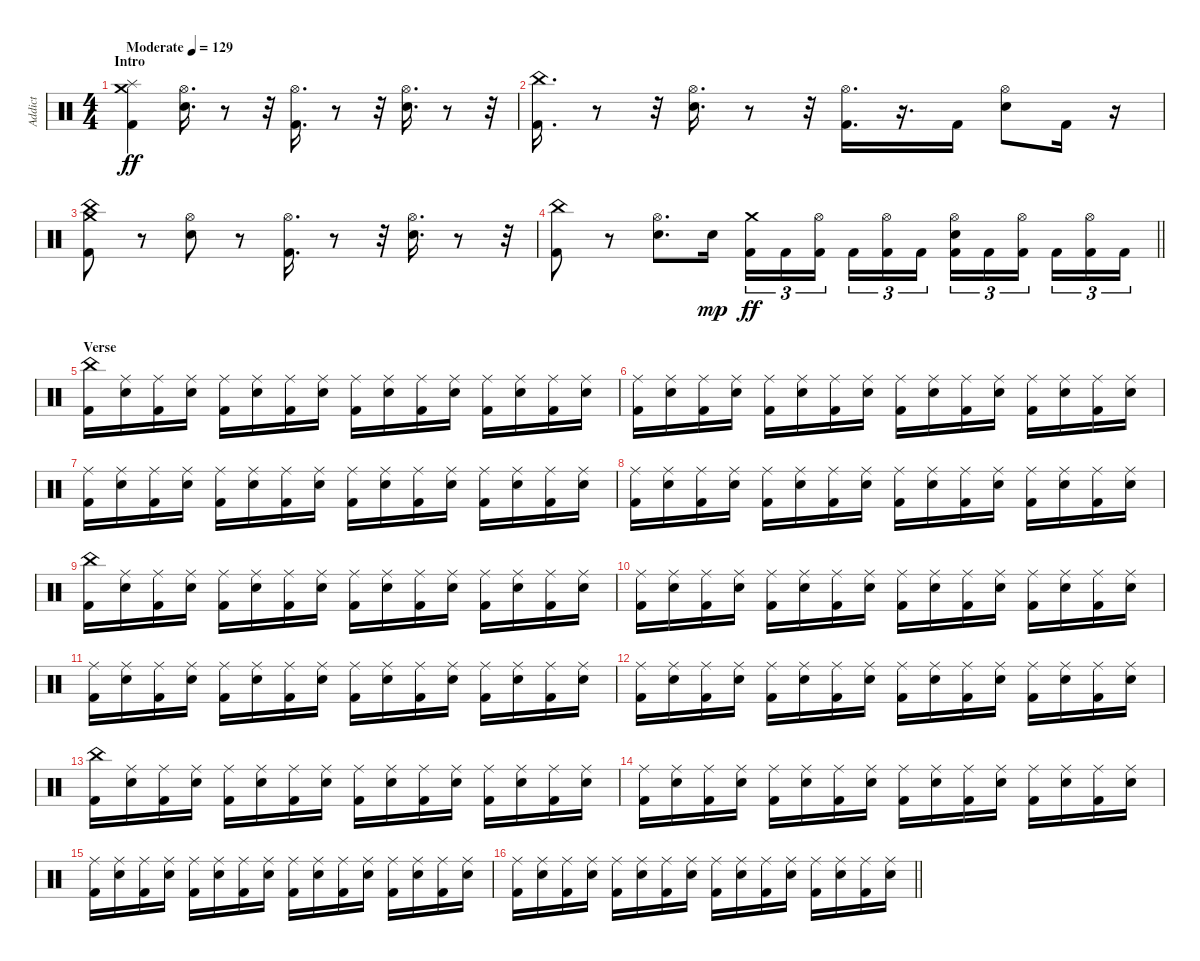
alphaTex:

\track ("Addict" "Addict") {instrument percussion}
\staff {score}
\articulation defaults
\ts (4 4)
\section ("" "Intro")
\tempo (129 "Moderate")
\clef neutral
\ks c
("Kick (hit) 2" "Crash medium (hit)" "Splash (hit)").4{dy ff} ("Snare (hit) 2" "Hi-Hat (open)").16{d} r.8 r.32 ("Kick (hit) 2" "Hi-Hat (open)").16{d} r.8 r.32 ("Snare (hit) 2" "Hi-Hat (open)").16{d} r.8 r.32 |
("Kick (hit) 2" "China (hit)").16{d} r.8 r.32 ("Snare (hit) 2" "Hi-Hat (open)").16{d} r.8 r.32 ("Kick (hit) 2" "Hi-Hat (open)").16{d} r.16{d} "Kick (hit) 2".16 ("Snare (hit) 2" "Hi-Hat (open)").8 "Kick (hit) 2".16 r.16 |
("Kick (hit) 2" "Crash medium (hit)" "China (hit)").8 r.8 ("Snare (hit) 2" "Hi-Hat (open)").8 r.8 ("Kick (hit) 2" "Hi-Hat (open)").16{d} r.8 r.32 ("Snare (hit) 2" "Hi-Hat (open)").16{d} r.8 r.32 |
\barLineRight lightlight
("Kick (hit) 2" "China (hit)").8 r.8 ("Snare (hit) 2" "Hi-Hat (open)").8{d} "Snare (hit) 2".16{dy mp} ("Kick (hit) 2" "Crash medium (hit)").16{tu (3 2) dy ff} "Kick (hit) 2".16{tu (3 2)} ("Kick (hit) 2" "Hi-Hat (open)").16{tu (3 2) beam splitsecondary} "Kick (hit) 2".16{tu (3 2)} ("Kick (hit) 2" "Hi-Hat (open)").16{tu (3 2)} "Kick (hit) 2".16{tu (3 2)} ("Kick (hit) 2" "Snare (hit) 2" "Hi-Hat (open)").16{tu (3 2)} "Kick (hit) 2".16{tu (3 2)} ("Kick (hit) 2" "Hi-Hat (open)").16{tu (3 2) beam splitsecondary} "Kick (hit) 2".16{tu (3 2)} ("Kick (hit) 2" "Hi-Hat (open)").16{tu (3 2)} "Kick (hit) 2".16{tu (3 2)} |
\section ("" "Verse")
("Kick (hit) 2" "China (hit)").16 ("Snare (hit) 2" "Ride (middle)").16 ("Kick (hit) 2" "Ride (middle)").16 ("Snare (hit) 2" "Ride (middle)").16 ("Kick (hit) 2" "Ride (middle)").16 ("Snare (hit) 2" "Ride (middle)").16 ("Kick (hit) 2" "Ride (middle)").16 ("Snare (hit) 2" "Ride (middle)").16 ("Kick (hit) 2" "Ride (middle)").16 ("Snare (hit) 2" "Ride (middle)").16 ("Kick (hit) 2" "Ride (middle)").16 ("Snare (hit) 2" "Ride (middle)").16 ("Kick (hit) 2" "Ride (middle)").16 ("Snare (hit) 2" "Ride (middle)").16 ("Kick (hit) 2" "Ride (middle)").16 ("Snare (hit) 2" "Ride (middle)").16 |
("Kick (hit) 2" "Ride (middle)").16 ("Snare (hit) 2" "Ride (middle)").16 ("Kick (hit) 2" "Ride (middle)").16 ("Snare (hit) 2" "Ride (middle)").16 ("Kick (hit) 2" "Ride (middle)").16 ("Snare (hit) 2" "Ride (middle)").16 ("Kick (hit) 2" "Ride (middle)").16 ("Snare (hit) 2" "Ride (middle)").16 ("Kick (hit) 2" "Ride (middle)").16 ("Snare (hit) 2" "Ride (middle)").16 ("Kick (hit) 2" "Ride (middle)").16 ("Snare (hit) 2" "Ride (middle)").16 ("Kick (hit) 2" "Ride (middle)").16 ("Snare (hit) 2" "Ride (middle)").16 ("Kick (hit) 2" "Ride (middle)").16 ("Snare (hit) 2" "Ride (middle)").16 |
("Kick (hit) 2" "Ride (middle)").16 ("Snare (hit) 2" "Ride (middle)").16 ("Kick (hit) 2" "Ride (middle)").16 ("Snare (hit) 2" "Ride (middle)").16 ("Kick (hit) 2" "Ride (middle)").16 ("Snare (hit) 2" "Ride (middle)").16 ("Kick (hit) 2" "Ride (middle)").16 ("Snare (hit) 2" "Ride (middle)").16 ("Kick (hit) 2" "Ride (middle)").16 ("Snare (hit) 2" "Ride (middle)").16 ("Kick (hit) 2" "Ride (middle)").16 ("Snare (hit) 2" "Ride (middle)").16 ("Kick (hit) 2" "Ride (middle)").16 ("Snare (hit) 2" "Ride (middle)").16 ("Kick (hit) 2" "Ride (middle)").16 ("Snare (hit) 2" "Ride (middle)").16 |
("Kick (hit) 2" "Ride (middle)").16 ("Snare (hit) 2" "Ride (middle)").16 ("Kick (hit) 2" "Ride (middle)").16 ("Snare (hit) 2" "Ride (middle)").16 ("Kick (hit) 2" "Ride (middle)").16 ("Snare (hit) 2" "Ride (middle)").16 ("Kick (hit) 2" "Ride (middle)").16 ("Snare (hit) 2" "Ride (middle)").16 ("Kick (hit) 2" "Ride (middle)").16 ("Snare (hit) 2" "Ride (middle)").16 ("Kick (hit) 2" "Ride (middle)").16 ("Snare (hit) 2" "Ride (middle)").16 ("Kick (hit) 2" "Ride (middle)").16 ("Snare (hit) 2" "Ride (middle)").16 ("Kick (hit) 2" "Ride (middle)").16 ("Snare (hit) 2" "Ride (middle)").16 |
("Kick (hit) 2" "China (hit)").16 ("Snare (hit) 2" "Ride (middle)").16 ("Kick (hit) 2" "Ride (middle)").16 ("Snare (hit) 2" "Ride (middle)").16 ("Kick (hit) 2" "Ride (middle)").16 ("Snare (hit) 2" "Ride (middle)").16 ("Kick (hit) 2" "Ride (middle)").16 ("Snare (hit) 2" "Ride (middle)").16 ("Kick (hit) 2" "Ride (middle)").16 ("Snare (hit) 2" "Ride (middle)").16 ("Kick (hit) 2" "Ride (middle)").16 ("Snare (hit) 2" "Ride (middle)").16 ("Kick (hit) 2" "Ride (middle)").16 ("Snare (hit) 2" "Ride (middle)").16 ("Kick (hit) 2" "Ride (middle)").16 ("Snare (hit) 2" "Ride (middle)").16 |
("Kick (hit) 2" "Ride (middle)").16 ("Snare (hit) 2" "Ride (middle)").16 ("Kick (hit) 2" "Ride (middle)").16 ("Snare (hit) 2" "Ride (middle)").16 ("Kick (hit) 2" "Ride (middle)").16 ("Snare (hit) 2" "Ride (middle)").16 ("Kick (hit) 2" "Ride (middle)").16 ("Snare (hit) 2" "Ride (middle)").16 ("Kick (hit) 2" "Ride (middle)").16 ("Snare (hit) 2" "Ride (middle)").16 ("Kick (hit) 2" "Ride (middle)").16 ("Snare (hit) 2" "Ride (middle)").16 ("Kick (hit) 2" "Ride (middle)").16 ("Snare (hit) 2" "Ride (middle)").16 ("Kick (hit) 2" "Ride (middle)").16 ("Snare (hit) 2" "Ride (middle)").16 |
("Kick (hit) 2" "Ride (middle)").16 ("Snare (hit) 2" "Ride (middle)").16 ("Kick (hit) 2" "Ride (middle)").16 ("Snare (hit) 2" "Ride (middle)").16 ("Kick (hit) 2" "Ride (middle)").16 ("Snare (hit) 2" "Ride (middle)").16 ("Kick (hit) 2" "Ride (middle)").16 ("Snare (hit) 2" "Ride (middle)").16 ("Kick (hit) 2" "Ride (middle)").16 ("Snare (hit) 2" "Ride (middle)").16 ("Kick (hit) 2" "Ride (middle)").16 ("Snare (hit) 2" "Ride (middle)").16 ("Kick (hit) 2" "Ride (middle)").16 ("Snare (hit) 2" "Ride (middle)").16 ("Kick (hit) 2" "Ride (middle)").16 ("Snare (hit) 2" "Ride (middle)").16 |
("Kick (hit) 2" "Ride (middle)").16 ("Snare (hit) 2" "Ride (middle)").16 ("Kick (hit) 2" "Ride (middle)").16 ("Snare (hit) 2" "Ride (middle)").16 ("Kick (hit) 2" "Ride (middle)").16 ("Snare (hit) 2" "Ride (middle)").16 ("Kick (hit) 2" "Ride (middle)").16 ("Snare (hit) 2" "Ride (middle)").16 ("Kick (hit) 2" "Ride (middle)").16 ("Snare (hit) 2" "Ride (middle)").16 ("Kick (hit) 2" "Ride (middle)").16 ("Snare (hit) 2" "Ride (middle)").16 ("Kick (hit) 2" "Ride (middle)").16 ("Snare (hit) 2" "Ride (middle)").16 ("Kick (hit) 2" "Ride (middle)").16 ("Snare (hit) 2" "Ride (middle)").16 |
("Kick (hit) 2" "China (hit)").16 ("Snare (hit) 2" "Ride (middle)").16 ("Kick (hit) 2" "Ride (middle)").16 ("Snare (hit) 2" "Ride (middle)").16 ("Kick (hit) 2" "Ride (middle)").16 ("Snare (hit) 2" "Ride (middle)").16 ("Kick (hit) 2" "Ride (middle)").16 ("Snare (hit) 2" "Ride (middle)").16 ("Kick (hit) 2" "Ride (middle)").16 ("Snare (hit) 2" "Ride (middle)").16 ("Kick (hit) 2" "Ride (middle)").16 ("Snare (hit) 2" "Ride (middle)").16 ("Kick (hit) 2" "Ride (middle)").16 ("Snare (hit) 2" "Ride (middle)").16 ("Kick (hit) 2" "Ride (middle)").16 ("Snare (hit) 2" "Ride (middle)").16 |
("Kick (hit) 2" "Ride (middle)").16 ("Snare (hit) 2" "Ride (middle)").16 ("Kick (hit) 2" "Ride (middle)").16 ("Snare (hit) 2" "Ride (middle)").16 ("Kick (hit) 2" "Ride (middle)").16 ("Snare (hit) 2" "Ride (middle)").16 ("Kick (hit) 2" "Ride (middle)").16 ("Snare (hit) 2" "Ride (middle)").16 ("Kick (hit) 2" "Ride (middle)").16 ("Snare (hit) 2" "Ride (middle)").16 ("Kick (hit) 2" "Ride (middle)").16 ("Snare (hit) 2" "Ride (middle)").16 ("Kick (hit) 2" "Ride (middle)").16 ("Snare (hit) 2" "Ride (middle)").16 ("Kick (hit) 2" "Ride (middle)").16 ("Snare (hit) 2" "Ride (middle)").16 |
("Kick (hit) 2" "Ride (middle)").16 ("Snare (hit) 2" "Ride (middle)").16 ("Kick (hit) 2" "Ride (middle)").16 ("Snare (hit) 2" "Ride (middle)").16 ("Kick (hit) 2" "Ride (middle)").16 ("Snare (hit) 2" "Ride (middle)").16 ("Kick (hit) 2" "Ride (middle)").16 ("Snare (hit) 2" "Ride (middle)").16 ("Kick (hit) 2" "Ride (middle)").16 ("Snare (hit) 2" "Ride (middle)").16 ("Kick (hit) 2" "Ride (middle)").16 ("Snare (hit) 2" "Ride (middle)").16 ("Kick (hit) 2" "Ride (middle)").16 ("Snare (hit) 2" "Ride (middle)").16 ("Kick (hit) 2" "Ride (middle)").16 ("Snare (hit) 2" "Ride (middle)").16 |
\barLineRight lightlight
("Kick (hit) 2" "Ride (middle)").16 ("Snare (hit) 2" "Ride (middle)").16 ("Kick (hit) 2" "Ride (middle)").16 ("Snare (hit) 2" "Ride (middle)").16 ("Kick (hit) 2" "Ride (middle)").16 ("Snare (hit) 2" "Ride (middle)").16 ("Kick (hit) 2" "Ride (middle)").16 ("Snare (hit) 2" "Ride (middle)").16 ("Kick (hit) 2" "Ride (middle)").16 ("Snare (hit) 2" "Ride (middle)").16 ("Kick (hit) 2" "Ride (middle)").16 ("Snare (hit) 2" "Ride (middle)").16 ("Kick (hit) 2" "Ride (middle)").16 ("Snare (hit) 2" "Ride (middle)").16 ("Kick (hit) 2" "Ride (middle)").16 ("Snare (hit) 2" "Ride (middle)").16
